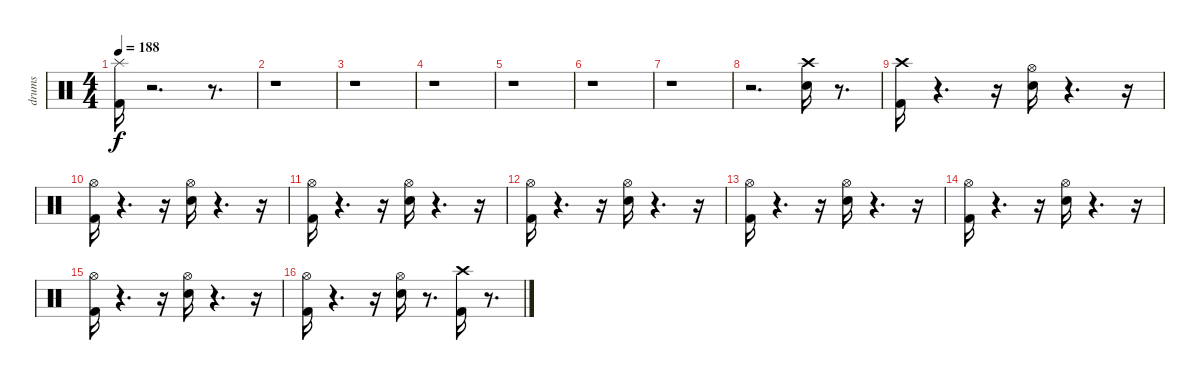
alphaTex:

\track ("drums" "drums") {instrument percussion}
\staff {score}
\articulation defaults
\ts (4 4)
\tempo 188
\clef neutral
\ks c
("Kick (hit) 2" "Splash (hit)").16{dy f} r.2{d} r.8{d} |
r.1 |
r.1 |
r.1 |
r.1 |
r.1 |
r.1 |
r.2{d} ("Snare (hit) 2" "Crash high (hit)").16 r.8{d} |
("Kick (hit) 2" "Crash high (hit)").16 r.4{d} r.16 ("Snare (hit) 2" "Hi-Hat (open)").16 r.4{d} r.16 |
("Kick (hit) 2" "Hi-Hat (open)").16 r.4{d} r.16 ("Snare (hit) 2" "Hi-Hat (open)").16 r.4{d} r.16 |
("Kick (hit) 2" "Hi-Hat (open)").16 r.4{d} r.16 ("Snare (hit) 2" "Hi-Hat (open)").16 r.4{d} r.16 |
("Kick (hit) 2" "Hi-Hat (open)").16 r.4{d} r.16 ("Snare (hit) 2" "Hi-Hat (open)").16 r.4{d} r.16 |
("Kick (hit) 2" "Hi-Hat (open)").16 r.4{d} r.16 ("Snare (hit) 2" "Hi-Hat (open)").16 r.4{d} r.16 |
("Kick (hit) 2" "Hi-Hat (open)").16 r.4{d} r.16 ("Snare (hit) 2" "Hi-Hat (open)").16 r.4{d} r.16 |
("Kick (hit) 2" "Hi-Hat (open)").16 r.4{d} r.16 ("Snare (hit) 2" "Hi-Hat (open)").16 r.4{d} r.16 |
("Kick (hit) 2" "Hi-Hat (open)").16 r.4{d} r.16 ("Snare (hit) 2" "Hi-Hat (open)").16 r.8{d} ("Kick (hit) 2" "Crash high (hit)").16 r.8{d}
